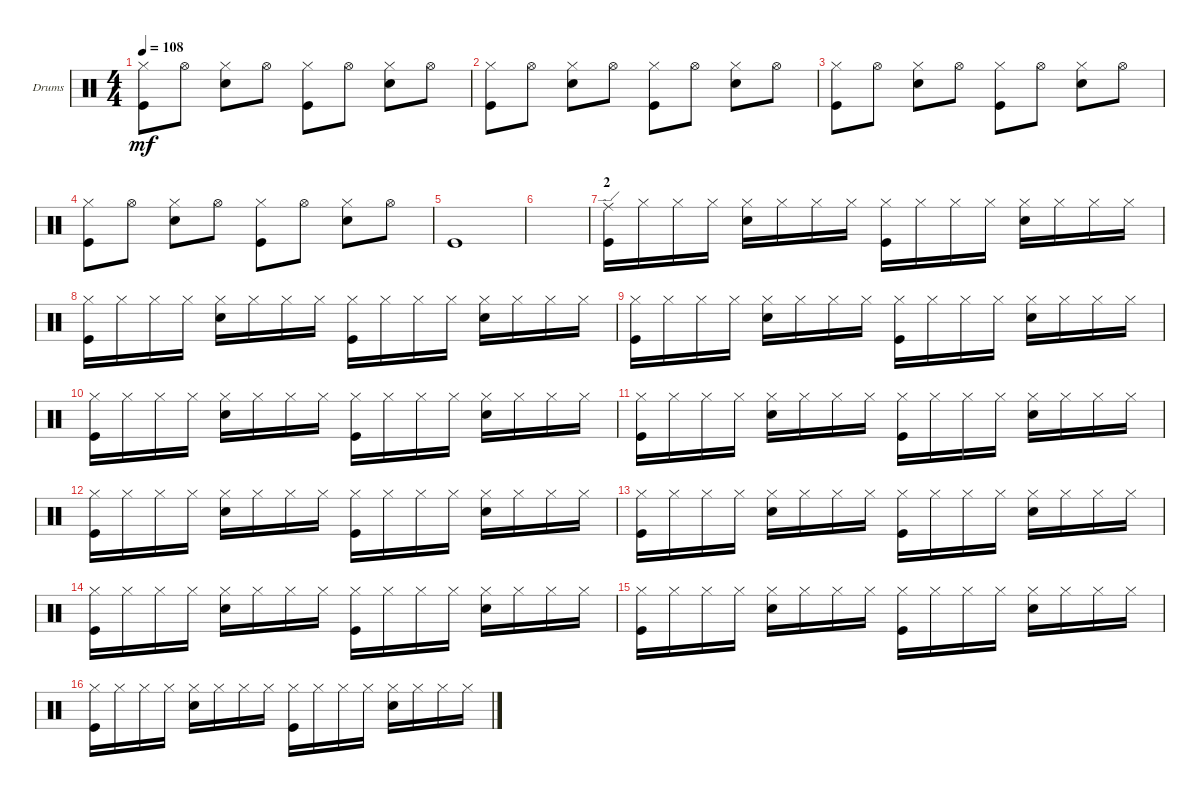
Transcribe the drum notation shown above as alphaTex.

\defaultSystemsLayout 4
\bracketExtendMode groupsimilarinstruments
\firstSystemTrackNameOrientation horizontal
\otherSystemsTrackNameOrientation horizontal
\track ("Drumkit" "Drums") {instrument percussion}
\staff {score}
\articulation defaults
\ts (4 4)
\tempo 108
\clef neutral
\scale
0.333333
\ks c
("Hi-Hat (closed)" "Kick (hit)").8{dy mf} "Hi-Hat (open)".8 ("Hi-Hat (closed)" "Snare (hit) 2").8 "Hi-Hat (open)".8 ("Hi-Hat (closed)" "Kick (hit)").8 "Hi-Hat (open)".8 ("Hi-Hat (closed)" "Snare (hit) 2").8 "Hi-Hat (open)".8 |
\scale
0.333333 ("Hi-Hat (closed)" "Kick (hit)").8 "Hi-Hat (open)".8 ("Hi-Hat (closed)" "Snare (hit) 2").8 "Hi-Hat (open)".8 ("Hi-Hat (closed)" "Kick (hit)").8 "Hi-Hat (open)".8 ("Hi-Hat (closed)" "Snare (hit) 2").8 "Hi-Hat (open)".8 |
\scale
0.333333 ("Hi-Hat (closed)" "Kick (hit)").8 "Hi-Hat (open)".8 ("Hi-Hat (closed)" "Snare (hit) 2").8 "Hi-Hat (open)".8 ("Hi-Hat (closed)" "Kick (hit)").8 "Hi-Hat (open)".8 ("Hi-Hat (closed)" "Snare (hit) 2").8 "Hi-Hat (open)".8 |
\scale
0.333333 ("Hi-Hat (closed)" "Kick (hit)").8 "Hi-Hat (open)".8 ("Hi-Hat (closed)" "Snare (hit) 2").8 "Hi-Hat (open)".8 ("Hi-Hat (closed)" "Kick (hit)").8 "Hi-Hat (open)".8 ("Hi-Hat (closed)" "Snare (hit) 2").8 "Hi-Hat (open)".8 |
\scale
0.333333 "Kick (hit)".1 |
\scale
0.333333 |
\section ("" "2")
\scale
0.333333 ("Ride (edge)" "Kick (hit)").16 "Hi-Hat (closed)".16 "Hi-Hat (closed)".16 "Hi-Hat (closed)".16 ("Hi-Hat (closed)" "Snare (hit) 2").16 "Hi-Hat (closed)".16 "Hi-Hat (closed)".16 "Hi-Hat (closed)".16 ("Hi-Hat (closed)" "Kick (hit)").16 "Hi-Hat (closed)".16 "Hi-Hat (closed)".16 "Hi-Hat (closed)".16 ("Hi-Hat (closed)" "Snare (hit) 2").16 "Hi-Hat (closed)".16 "Hi-Hat (closed)".16 "Hi-Hat (closed)".16 |
\scale
0.333333 ("Hi-Hat (closed)" "Kick (hit)").16 "Hi-Hat (closed)".16 "Hi-Hat (closed)".16 "Hi-Hat (closed)".16 ("Hi-Hat (closed)" "Snare (hit) 2").16 "Hi-Hat (closed)".16 "Hi-Hat (closed)".16 "Hi-Hat (closed)".16 ("Hi-Hat (closed)" "Kick (hit)").16 "Hi-Hat (closed)".16 "Hi-Hat (closed)".16 "Hi-Hat (closed)".16 ("Hi-Hat (closed)" "Snare (hit) 2").16 "Hi-Hat (closed)".16 "Hi-Hat (closed)".16 "Hi-Hat (closed)".16 |
\scale
0.333333 ("Hi-Hat (closed)" "Kick (hit)").16 "Hi-Hat (closed)".16 "Hi-Hat (closed)".16 "Hi-Hat (closed)".16 ("Hi-Hat (closed)" "Snare (hit) 2").16 "Hi-Hat (closed)".16 "Hi-Hat (closed)".16 "Hi-Hat (closed)".16 ("Hi-Hat (closed)" "Kick (hit)").16 "Hi-Hat (closed)".16 "Hi-Hat (closed)".16 "Hi-Hat (closed)".16 ("Hi-Hat (closed)" "Snare (hit) 2").16 "Hi-Hat (closed)".16 "Hi-Hat (closed)".16 "Hi-Hat (closed)".16 |
\scale
0.333333 ("Hi-Hat (closed)" "Kick (hit)").16 "Hi-Hat (closed)".16 "Hi-Hat (closed)".16 "Hi-Hat (closed)".16 ("Hi-Hat (closed)" "Snare (hit) 2").16 "Hi-Hat (closed)".16 "Hi-Hat (closed)".16 "Hi-Hat (closed)".16 ("Hi-Hat (closed)" "Kick (hit)").16 "Hi-Hat (closed)".16 "Hi-Hat (closed)".16 "Hi-Hat (closed)".16 ("Hi-Hat (closed)" "Snare (hit) 2").16 "Hi-Hat (closed)".16 "Hi-Hat (closed)".16 "Hi-Hat (closed)".16 |
\scale
0.333333 ("Hi-Hat (closed)" "Kick (hit)").16 "Hi-Hat (closed)".16 "Hi-Hat (closed)".16 "Hi-Hat (closed)".16 ("Hi-Hat (closed)" "Snare (hit) 2").16 "Hi-Hat (closed)".16 "Hi-Hat (closed)".16 "Hi-Hat (closed)".16 ("Hi-Hat (closed)" "Kick (hit)").16 "Hi-Hat (closed)".16 "Hi-Hat (closed)".16 "Hi-Hat (closed)".16 ("Hi-Hat (closed)" "Snare (hit) 2").16 "Hi-Hat (closed)".16 "Hi-Hat (closed)".16 "Hi-Hat (closed)".16 |
\scale
0.333333 ("Hi-Hat (closed)" "Kick (hit)").16 "Hi-Hat (closed)".16 "Hi-Hat (closed)".16 "Hi-Hat (closed)".16 ("Hi-Hat (closed)" "Snare (hit) 2").16 "Hi-Hat (closed)".16 "Hi-Hat (closed)".16 "Hi-Hat (closed)".16 ("Hi-Hat (closed)" "Kick (hit)").16 "Hi-Hat (closed)".16 "Hi-Hat (closed)".16 "Hi-Hat (closed)".16 ("Hi-Hat (closed)" "Snare (hit) 2").16 "Hi-Hat (closed)".16 "Hi-Hat (closed)".16 "Hi-Hat (closed)".16 |
\scale
0.333333 ("Hi-Hat (closed)" "Kick (hit)").16 "Hi-Hat (closed)".16 "Hi-Hat (closed)".16 "Hi-Hat (closed)".16 ("Hi-Hat (closed)" "Snare (hit) 2").16 "Hi-Hat (closed)".16 "Hi-Hat (closed)".16 "Hi-Hat (closed)".16 ("Hi-Hat (closed)" "Kick (hit)").16 "Hi-Hat (closed)".16 "Hi-Hat (closed)".16 "Hi-Hat (closed)".16 ("Hi-Hat (closed)" "Snare (hit) 2").16 "Hi-Hat (closed)".16 "Hi-Hat (closed)".16 "Hi-Hat (closed)".16 |
\scale
0.333333 ("Hi-Hat (closed)" "Kick (hit)").16 "Hi-Hat (closed)".16 "Hi-Hat (closed)".16 "Hi-Hat (closed)".16 ("Hi-Hat (closed)" "Snare (hit) 2").16 "Hi-Hat (closed)".16 "Hi-Hat (closed)".16 "Hi-Hat (closed)".16 ("Hi-Hat (closed)" "Kick (hit)").16 "Hi-Hat (closed)".16 "Hi-Hat (closed)".16 "Hi-Hat (closed)".16 ("Hi-Hat (closed)" "Snare (hit) 2").16 "Hi-Hat (closed)".16 "Hi-Hat (closed)".16 "Hi-Hat (closed)".16 |
\scale
0.333333 ("Hi-Hat (closed)" "Kick (hit)").16 "Hi-Hat (closed)".16 "Hi-Hat (closed)".16 "Hi-Hat (closed)".16 ("Hi-Hat (closed)" "Snare (hit) 2").16 "Hi-Hat (closed)".16 "Hi-Hat (closed)".16 "Hi-Hat (closed)".16 ("Hi-Hat (closed)" "Kick (hit)").16 "Hi-Hat (closed)".16 "Hi-Hat (closed)".16 "Hi-Hat (closed)".16 ("Hi-Hat (closed)" "Snare (hit) 2").16 "Hi-Hat (closed)".16 "Hi-Hat (closed)".16 "Hi-Hat (closed)".16 |
\scale
0.333333 ("Hi-Hat (closed)" "Kick (hit)").16 "Hi-Hat (closed)".16 "Hi-Hat (closed)".16 "Hi-Hat (closed)".16 ("Hi-Hat (closed)" "Snare (hit) 2").16 "Hi-Hat (closed)".16 "Hi-Hat (closed)".16 "Hi-Hat (closed)".16 ("Hi-Hat (closed)" "Kick (hit)").16 "Hi-Hat (closed)".16 "Hi-Hat (closed)".16 "Hi-Hat (closed)".16 ("Hi-Hat (closed)" "Snare (hit) 2").16 "Hi-Hat (closed)".16 "Hi-Hat (closed)".16 "Hi-Hat (closed)".16
